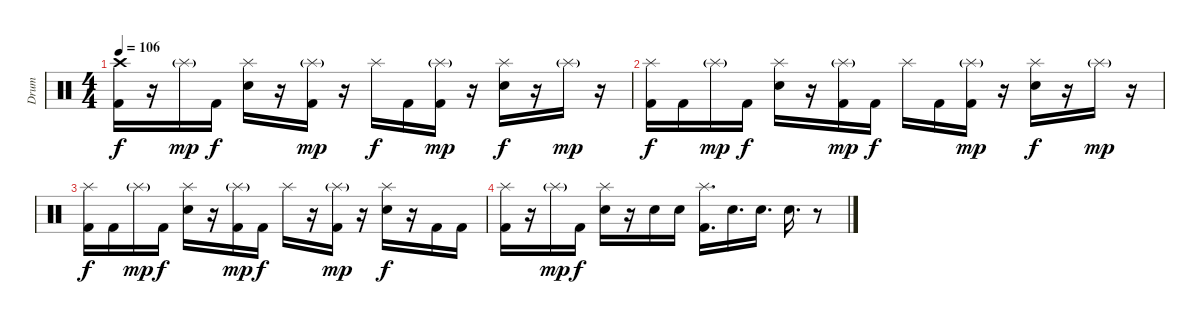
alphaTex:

\track ("Drum" "Drum") {instrument percussion}
\staff {score}
\articulation defaults
\ts (4 4)
\tempo 106
\clef neutral
\ks c
("Crash high (hit)" "Kick (hit) 2").16{dy f} r.16 "Splash (hit)"{g}.16{dy mp} "Kick (hit) 2".16{dy f} ("Splash (hit)" "Electric Snare (hit)").16 r.16 ("Splash (hit)"{g} "Kick (hit) 2").16{dy mp} r.16 "Splash (hit)".16{dy f} "Kick (hit) 2".16 ("Splash (hit)"{g} "Kick (hit) 2").16{dy mp} r.16 ("Splash (hit)" "Electric Snare (hit)").16{dy f} r.16 "Splash (hit)"{g}.16{dy mp} r.16 |
("Splash (hit)" "Kick (hit) 2").16{dy f} "Kick (hit) 2".16 "Splash (hit)"{g}.16{dy mp} "Kick (hit) 2".16{dy f} ("Splash (hit)" "Electric Snare (hit)").16 r.16 ("Splash (hit)"{g} "Kick (hit) 2").16{dy mp} "Kick (hit) 2".16{dy f} "Splash (hit)".16 "Kick (hit) 2".16 ("Splash (hit)"{g} "Kick (hit) 2").16{dy mp} r.16 ("Splash (hit)" "Electric Snare (hit)").16{dy f} r.16 "Splash (hit)"{g}.16{dy mp} r.16 |
("Splash (hit)" "Kick (hit) 2").16{dy f} "Kick (hit) 2".16 "Splash (hit)"{g}.16{dy mp} "Kick (hit) 2".16{dy f} ("Splash (hit)" "Electric Snare (hit)").16 r.16 ("Splash (hit)"{g} "Kick (hit) 2").16{dy mp} "Kick (hit) 2".16{dy f} "Splash (hit)".16 r.16 ("Splash (hit)"{g} "Kick (hit) 2").16{dy mp} r.16 ("Splash (hit)" "Electric Snare (hit)").16{dy f} r.16 "Kick (hit) 2".16 "Kick (hit) 2".16 |
("Splash (hit)" "Kick (hit) 2").16 r.16 "Splash (hit)"{g}.16{dy mp} "Kick (hit) 2".16{dy f} ("Splash (hit)" "Electric Snare (hit)").16 r.16 "Electric Snare (hit)".16 "Electric Snare (hit)".16 ("Splash (hit)" "Kick (hit) 2").16{d} "Electric Snare (hit)".16{d} "Electric Snare (hit)".16{d} "Electric Snare (hit)".16{d} r.8
